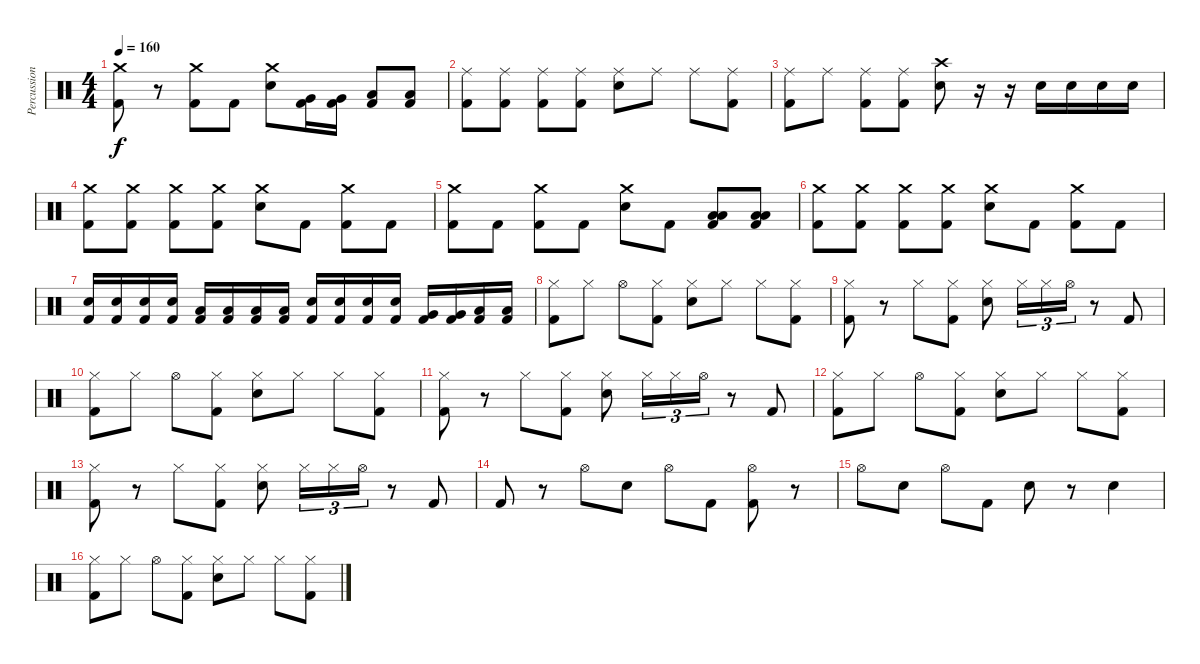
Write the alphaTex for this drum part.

\track ("Percussion" "Percussion") {instrument percussion}
\staff {score}
\articulation defaults
\ts (4 4)
\tempo 160
\clef neutral
\ks c
("Kick (hit) 2" "Crash medium (hit)").8{dy f} r.8 ("Kick (hit) 2" "Crash medium (hit)").8 "Kick (hit) 2".8 ("Snare (hit) 2" "Crash medium (hit)").8 ("Very Low Tom (hit)" "Kick (hit) 2").16 ("Very Low Tom (hit)" "Kick (hit) 2").16 ("Low Floor Tom (hit)" "Kick (hit) 2").8 ("Low Floor Tom (hit)" "Kick (hit) 2").8 |
("Kick (hit) 2" "Ride (middle)").8 ("Kick (hit) 2" "Ride (middle)").8 ("Kick (hit) 2" "Ride (middle)").8 ("Kick (hit) 2" "Ride (middle)").8 ("Snare (hit) 2" "Ride (middle)").8 "Ride (middle)".8 "Ride (middle)".8 ("Kick (hit) 2" "Ride (middle)").8 |
("Kick (hit) 2" "Ride (middle)").8 "Ride (middle)".8 ("Kick (hit) 2" "Ride (middle)").8 ("Kick (hit) 2" "Ride (middle)").8 ("Snare (hit) 2" "Crash high (hit)").8 r.16 r.16 "Snare (hit) 2".16 "Snare (hit) 2".16 "Snare (hit) 2".16 "Snare (hit) 2".16 |
("Kick (hit) 2" "Crash medium (hit)").8 ("Kick (hit) 2" "Crash medium (hit)").8 ("Kick (hit) 2" "Crash medium (hit)").8 ("Kick (hit) 2" "Crash medium (hit)").8 ("Snare (hit) 2" "Crash medium (hit)").8 "Kick (hit) 2".8 ("Kick (hit) 2" "Crash medium (hit)").8 "Kick (hit) 2".8 |
("Kick (hit) 2" "Crash medium (hit)").8 "Kick (hit) 2".8 ("Kick (hit) 2" "Crash medium (hit)").8 "Kick (hit) 2".8 ("Snare (hit) 2" "Crash medium (hit)").8 "Kick (hit) 2".8 ("Low Floor Tom (hit)" "Low Tom (hit)" "Kick (hit) 2").8 ("Low Floor Tom (hit)" "Low Tom (hit)" "Kick (hit) 2").8 |
("Kick (hit) 2" "Crash medium (hit)").8 ("Kick (hit) 2" "Crash medium (hit)").8 ("Kick (hit) 2" "Crash medium (hit)").8 ("Kick (hit) 2" "Crash medium (hit)").8 ("Snare (hit) 2" "Crash medium (hit)").8 "Kick (hit) 2".8 ("Kick (hit) 2" "Crash medium (hit)").8 "Kick (hit) 2".8 |
("Snare (hit) 2" "Kick (hit) 2").16 ("Snare (hit) 2" "Kick (hit) 2").16 ("Snare (hit) 2" "Kick (hit) 2").16 ("Snare (hit) 2" "Kick (hit) 2").16 ("Low Tom (hit)" "Kick (hit) 2").16 ("Low Tom (hit)" "Kick (hit) 2").16 ("Low Tom (hit)" "Kick (hit) 2").16 ("Low Tom (hit)" "Kick (hit) 2").16 ("Snare (hit) 2" "Kick (hit) 2").16 ("Snare (hit) 2" "Kick (hit) 2").16 ("Snare (hit) 2" "Kick (hit) 2").16 ("Snare (hit) 2" "Kick (hit) 2").16 ("Very Low Tom (hit)" "Kick (hit) 2").16 ("Very Low Tom (hit)" "Kick (hit) 2").16 ("Low Floor Tom (hit)" "Kick (hit) 2").16 ("Low Floor Tom (hit)" "Kick (hit) 2").16 |
("Kick (hit) 2" "Hi-Hat (closed)").8 "Hi-Hat (closed)".8 "Hi-Hat (open)".8 ("Kick (hit) 2" "Hi-Hat (closed)").8 ("Snare (hit) 2" "Hi-Hat (closed)").8 "Hi-Hat (closed)".8 "Hi-Hat (closed)".8 ("Kick (hit) 2" "Hi-Hat (closed)").8 |
("Kick (hit) 2" "Hi-Hat (closed)").8 r.8 "Hi-Hat (closed)".8 ("Kick (hit) 2" "Hi-Hat (closed)").8 ("Snare (hit) 2" "Hi-Hat (closed)").8 "Hi-Hat (closed)".16{tu (3 2)} "Hi-Hat (closed)".16{tu (3 2)} "Hi-Hat (open)".16{tu (3 2)} r.8 "Kick (hit) 2".8 |
("Kick (hit) 2" "Hi-Hat (closed)").8 "Hi-Hat (closed)".8 "Hi-Hat (open)".8 ("Kick (hit) 2" "Hi-Hat (closed)").8 ("Snare (hit) 2" "Hi-Hat (closed)").8 "Hi-Hat (closed)".8 "Hi-Hat (closed)".8 ("Kick (hit) 2" "Hi-Hat (closed)").8 |
("Kick (hit) 2" "Hi-Hat (closed)").8 r.8 "Hi-Hat (closed)".8 ("Kick (hit) 2" "Hi-Hat (closed)").8 ("Snare (hit) 2" "Hi-Hat (closed)").8 "Hi-Hat (closed)".16{tu (3 2)} "Hi-Hat (closed)".16{tu (3 2)} "Hi-Hat (open)".16{tu (3 2)} r.8 "Kick (hit) 2".8 |
("Kick (hit) 2" "Hi-Hat (closed)").8 "Hi-Hat (closed)".8 "Hi-Hat (open)".8 ("Kick (hit) 2" "Hi-Hat (closed)").8 ("Snare (hit) 2" "Hi-Hat (closed)").8 "Hi-Hat (closed)".8 "Hi-Hat (closed)".8 ("Kick (hit) 2" "Hi-Hat (closed)").8 |
("Kick (hit) 2" "Hi-Hat (closed)").8 r.8 "Hi-Hat (closed)".8 ("Kick (hit) 2" "Hi-Hat (closed)").8 ("Snare (hit) 2" "Hi-Hat (closed)").8 "Hi-Hat (closed)".16{tu (3 2)} "Hi-Hat (closed)".16{tu (3 2)} "Hi-Hat (open)".16{tu (3 2)} r.8 "Kick (hit) 2".8 |
"Kick (hit) 2".8 r.8 "Hi-Hat (open)".8 "Snare (hit) 2".8 "Hi-Hat (open)".8 "Kick (hit) 2".8 ("Kick (hit) 2" "Hi-Hat (open)").8 r.8 |
"Hi-Hat (open)".8 "Snare (hit) 2".8 "Hi-Hat (open)".8 "Kick (hit) 2".8 "Snare (hit) 2".8 r.8 "Snare (hit) 2".4 |
("Kick (hit) 2" "Hi-Hat (closed)").8 "Hi-Hat (closed)".8 "Hi-Hat (open)".8 ("Kick (hit) 2" "Hi-Hat (closed)").8 ("Snare (hit) 2" "Hi-Hat (closed)").8 "Hi-Hat (closed)".8 "Hi-Hat (closed)".8 ("Kick (hit) 2" "Hi-Hat (closed)").8
